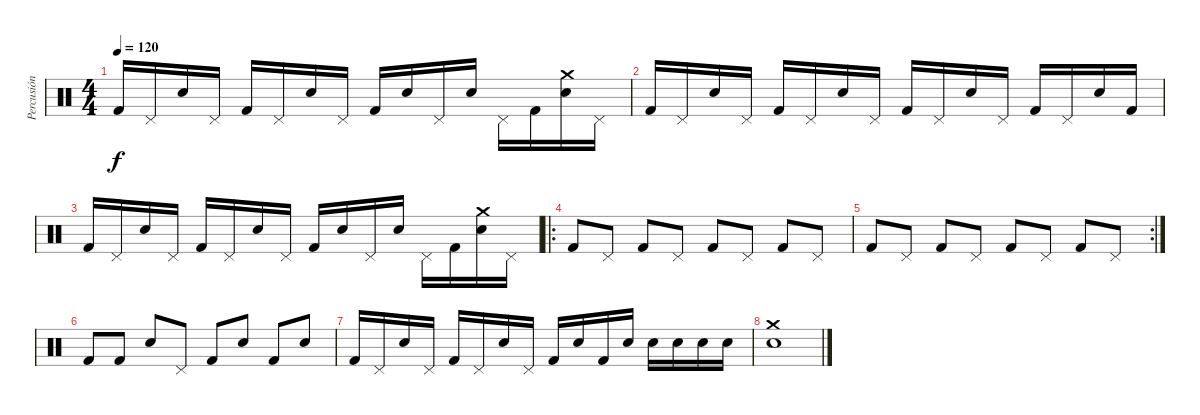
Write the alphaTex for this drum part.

\track ("Percusión" "Percusión") {instrument percussion}
\staff {score}
\articulation defaults
\ts (4 4)
\tempo 120
\clef neutral
\ks c "Kick (hit) 2".16{dy f} "Pedal Hi-Hat (hit)".16 "Snare (hit) 2".16 "Pedal Hi-Hat (hit)".16 "Kick (hit) 2".16 "Pedal Hi-Hat (hit)".16 "Snare (hit) 2".16 "Pedal Hi-Hat (hit)".16 "Kick (hit) 2".16 "Snare (hit) 2".16 "Pedal Hi-Hat (hit)".16 "Snare (hit) 2".16 "Pedal Hi-Hat (hit)".16 "Kick (hit) 2".16
("Snare (hit) 2" "Crash medium (hit)").16 "Pedal Hi-Hat (hit)".16 |
"Kick (hit) 2".16 "Pedal Hi-Hat (hit)".16 "Snare (hit) 2".16 "Pedal Hi-Hat (hit)".16 "Kick (hit) 2".16 "Pedal Hi-Hat (hit)".16 "Snare (hit) 2".16 "Pedal Hi-Hat (hit)".16 "Kick (hit) 2".16 "Pedal Hi-Hat (hit)".16 "Snare (hit) 2".16 "Pedal Hi-Hat (hit)".16 "Kick (hit) 2".16 "Pedal Hi-Hat (hit)".16 "Snare (hit) 2".16 "Kick (hit) 2".16 |
"Kick (hit) 2".16 "Pedal Hi-Hat (hit)".16 "Snare (hit) 2".16 "Pedal Hi-Hat (hit)".16 "Kick (hit) 2".16 "Pedal Hi-Hat (hit)".16 "Snare (hit) 2".16 "Pedal Hi-Hat (hit)".16 "Kick (hit) 2".16 "Snare (hit) 2".16 "Pedal Hi-Hat (hit)".16 "Snare (hit) 2".16 "Pedal Hi-Hat (hit)".16 "Kick (hit) 2".16 ("Snare (hit) 2" "Crash medium (hit)").16 "Pedal Hi-Hat (hit)".16 |
\ro "Kick (hit) 2".8 "Pedal Hi-Hat (hit)".8 "Kick (hit) 2".8 "Pedal Hi-Hat (hit)".8 "Kick (hit) 2".8 "Pedal Hi-Hat (hit)".8 "Kick (hit) 2".8 "Pedal Hi-Hat (hit)".8
|
\rc 2 "Kick (hit) 2".8 "Pedal Hi-Hat (hit)".8 "Kick (hit) 2".8 "Pedal Hi-Hat (hit)".8 "Kick (hit) 2".8 "Pedal Hi-Hat (hit)".8 "Kick (hit) 2".8 "Pedal Hi-Hat (hit)".8
|
"Kick (hit) 2".8 "Kick (hit) 2".8 "Snare (hit) 2".8 "Pedal Hi-Hat (hit)".8 "Kick (hit) 2".8 "Snare (hit) 2".8 "Kick (hit) 2".8 "Snare (hit) 2".8 |
"Kick (hit) 2".16 "Pedal Hi-Hat (hit)".16 "Snare (hit) 2".16 "Pedal Hi-Hat (hit)".16 "Kick (hit) 2".16 "Pedal Hi-Hat (hit)".16 "Snare (hit) 2".16 "Pedal Hi-Hat (hit)".16 "Kick (hit) 2".16 "Snare (hit) 2".16 "Kick (hit) 2".16 "Snare (hit) 2".16 "Snare (hit) 2".16 "Snare (hit) 2".16 "Snare (hit) 2".16 "Snare (hit) 2".16 |
("Snare (hit) 2" "Crash medium (hit)").1
